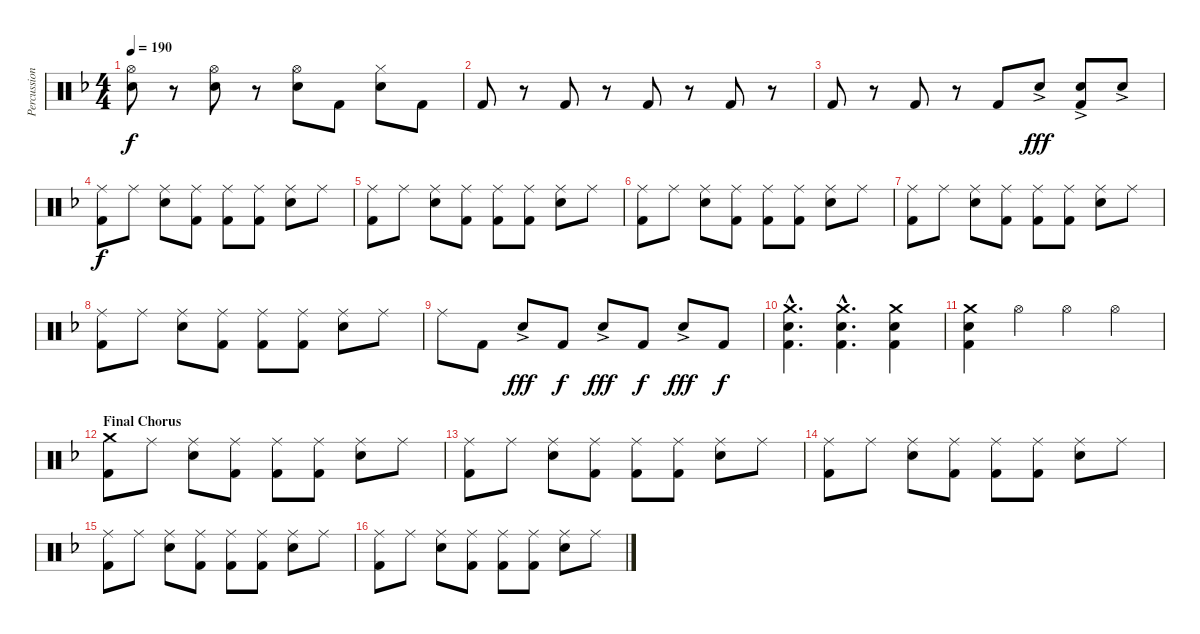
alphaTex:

\track ("Percussion" "Percussion") {instrument percussion}
\staff {score}
\articulation defaults
\ts (4 4)
\tempo 190
\clef neutral
\ks f
("Hi-Hat (open)" "Snare (hit) 2").8{dy f} r.8 ("Hi-Hat (open)" "Snare (hit) 2").8 r.8 ("Hi-Hat (open)" "Snare (hit) 2").8 "Kick (hit) 2".8 ("Hi-Hat (closed)" "Snare (hit) 2").8 "Kick (hit) 2".8 |
"Kick (hit) 2".8 r.8 "Kick (hit) 2".8 r.8 "Kick (hit) 2".8 r.8 "Kick (hit) 2".8 r.8 |
"Kick (hit) 2".8 r.8 "Kick (hit) 2".8 r.8 "Kick (hit) 2".8 "Snare (hit) 2"{ac}.8{dy fff} ("Snare (hit) 2"{ac} "Kick (hit) 2").8 "Snare (hit) 2"{ac}.8 |
("Ride (middle)" "Kick (hit) 2").8{dy f} "Ride (middle)".8 ("Ride (middle)" "Snare (hit) 2").8 ("Ride (middle)" "Kick (hit) 2").8 ("Ride (middle)" "Kick (hit) 2").8 ("Ride (middle)" "Kick (hit) 2").8 ("Ride (middle)" "Snare (hit) 2").8 "Ride (middle)".8 |
("Ride (middle)" "Kick (hit) 2").8 "Ride (middle)".8 ("Ride (middle)" "Snare (hit) 2").8 ("Ride (middle)" "Kick (hit) 2").8 ("Ride (middle)" "Kick (hit) 2").8 ("Ride (middle)" "Kick (hit) 2").8 ("Ride (middle)" "Snare (hit) 2").8 "Ride (middle)".8 |
("Ride (middle)" "Kick (hit) 2").8 "Ride (middle)".8 ("Ride (middle)" "Snare (hit) 2").8 ("Ride (middle)" "Kick (hit) 2").8 ("Ride (middle)" "Kick (hit) 2").8 ("Ride (middle)" "Kick (hit) 2").8 ("Ride (middle)" "Snare (hit) 2").8 "Ride (middle)".8 |
("Ride (middle)" "Kick (hit) 2").8 "Ride (middle)".8 ("Ride (middle)" "Snare (hit) 2").8 ("Ride (middle)" "Kick (hit) 2").8 ("Ride (middle)" "Kick (hit) 2").8 ("Ride (middle)" "Kick (hit) 2").8 ("Ride (middle)" "Snare (hit) 2").8 "Ride (middle)".8 |
("Ride (middle)" "Kick (hit) 2").8 "Ride (middle)".8 ("Ride (middle)" "Snare (hit) 2").8 ("Ride (middle)" "Kick (hit) 2").8 ("Ride (middle)" "Kick (hit) 2").8 ("Ride (middle)" "Kick (hit) 2").8 ("Ride (middle)" "Snare (hit) 2").8 "Ride (middle)".8 |
"Ride (middle)".8 "Kick (hit) 2".8 "Snare (hit) 2"{ac}.8{dy fff} "Kick (hit) 2".8{dy f} "Snare (hit) 2"{ac}.8{dy fff} "Kick (hit) 2".8{dy f} "Snare (hit) 2"{ac}.8{dy fff} "Kick (hit) 2".8{dy f} |
("Crash medium (hit)"{hac} "Snare (hit) 2"{hac} "Kick (hit) 2"{hac}).4{d} ("Crash medium (hit)"{hac} "Snare (hit) 2"{hac} "Kick (hit) 2"{hac}).4{d} ("Crash medium (hit)" "Snare (hit) 2" "Kick (hit) 2").4 |
("Crash medium (hit)" "Snare (hit) 2" "Kick (hit) 2").4 "Hi-Hat (open)".4 "Hi-Hat (open)".4 "Hi-Hat (open)".4 |
\section ("" "Final Chorus")
("Crash medium (hit)" "Kick (hit) 2").8 "Ride (middle)".8 ("Ride (middle)" "Snare (hit) 2").8 ("Ride (middle)" "Kick (hit) 2").8 ("Ride (middle)" "Kick (hit) 2").8 ("Ride (middle)" "Kick (hit) 2").8 ("Ride (middle)" "Snare (hit) 2").8 "Ride (middle)".8 |
("Ride (middle)" "Kick (hit) 2").8 "Ride (middle)".8 ("Ride (middle)" "Snare (hit) 2").8 ("Ride (middle)" "Kick (hit) 2").8 ("Ride (middle)" "Kick (hit) 2").8 ("Ride (middle)" "Kick (hit) 2").8 ("Ride (middle)" "Snare (hit) 2").8 "Ride (middle)".8 |
("Ride (middle)" "Kick (hit) 2").8 "Ride (middle)".8 ("Ride (middle)" "Snare (hit) 2").8 ("Ride (middle)" "Kick (hit) 2").8 ("Ride (middle)" "Kick (hit) 2").8 ("Ride (middle)" "Kick (hit) 2").8 ("Ride (middle)" "Snare (hit) 2").8 "Ride (middle)".8 |
("Ride (middle)" "Kick (hit) 2").8 "Ride (middle)".8 ("Ride (middle)" "Snare (hit) 2").8 ("Ride (middle)" "Kick (hit) 2").8 ("Ride (middle)" "Kick (hit) 2").8 ("Ride (middle)" "Kick (hit) 2").8 ("Ride (middle)" "Snare (hit) 2").8 "Ride (middle)".8 |
("Ride (middle)" "Kick (hit) 2").8 "Ride (middle)".8 ("Ride (middle)" "Snare (hit) 2").8 ("Ride (middle)" "Kick (hit) 2").8 ("Ride (middle)" "Kick (hit) 2").8 ("Ride (middle)" "Kick (hit) 2").8 ("Ride (middle)" "Snare (hit) 2").8 "Ride (middle)".8
